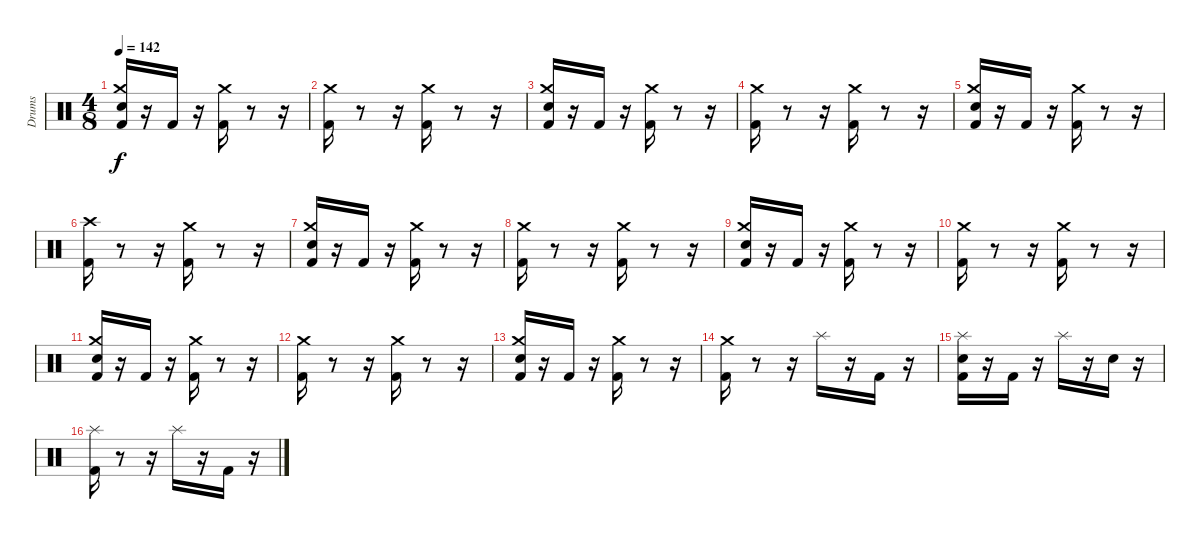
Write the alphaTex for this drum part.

\track ("Drums" "Drums") {instrument percussion}
\staff {score}
\articulation defaults
\ts (4 8)
\tempo 142
\clef neutral
\ks c
("Electric Snare (hit)" "Crash medium (hit)" "Kick (hit) 2").16{dy f} r.16 "Kick (hit) 2".16 r.16 ("Kick (hit) 2" "Crash medium (hit)").16 r.8 r.16 |
("Kick (hit) 2" "Crash medium (hit)").16 r.8 r.16 ("Kick (hit) 2" "Crash medium (hit)").16 r.8 r.16 |
("Electric Snare (hit)" "Crash medium (hit)" "Kick (hit) 2").16 r.16 "Kick (hit) 2".16 r.16 ("Kick (hit) 2" "Crash medium (hit)").16 r.8 r.16 |
("Kick (hit) 2" "Crash medium (hit)").16 r.8 r.16 ("Kick (hit) 2" "Crash medium (hit)").16 r.8 r.16 |
("Electric Snare (hit)" "Crash medium (hit)" "Kick (hit) 2").16 r.16 "Kick (hit) 2".16 r.16 ("Kick (hit) 2" "Crash medium (hit)").16 r.8 r.16 |
("Kick (hit) 2" "Crash high (hit)").16 r.8 r.16 ("Kick (hit) 2" "Crash medium (hit)").16 r.8 r.16 |
("Electric Snare (hit)" "Crash medium (hit)" "Kick (hit) 2").16 r.16 "Kick (hit) 2".16 r.16 ("Kick (hit) 2" "Crash medium (hit)").16 r.8 r.16 |
("Kick (hit) 2" "Crash medium (hit)").16 r.8 r.16 ("Kick (hit) 2" "Crash medium (hit)").16 r.8 r.16 |
("Electric Snare (hit)" "Crash medium (hit)" "Kick (hit) 2").16 r.16 "Kick (hit) 2".16 r.16 ("Kick (hit) 2" "Crash medium (hit)").16 r.8 r.16 |
("Kick (hit) 2" "Crash medium (hit)").16 r.8 r.16 ("Kick (hit) 2" "Crash medium (hit)").16 r.8 r.16 |
("Electric Snare (hit)" "Crash medium (hit)" "Kick (hit) 2").16 r.16 "Kick (hit) 2".16 r.16 ("Kick (hit) 2" "Crash medium (hit)").16 r.8 r.16 |
("Kick (hit) 2" "Crash medium (hit)").16 r.8 r.16 ("Kick (hit) 2" "Crash medium (hit)").16 r.8 r.16 |
("Electric Snare (hit)" "Crash medium (hit)" "Kick (hit) 2").16 r.16 "Kick (hit) 2".16 r.16 ("Kick (hit) 2" "Crash medium (hit)").16 r.8 r.16 |
("Kick (hit) 2" "Crash medium (hit)").16 r.8 r.16 "Splash (hit)".16 r.16 "Kick (hit) 2".16 r.16 |
("Electric Snare (hit)" "Kick (hit) 2" "Splash (hit)").16 r.16 "Kick (hit) 2".16 r.16 "Splash (hit)".16 r.16 "Electric Snare (hit)".16 r.16 |
("Kick (hit) 2" "Splash (hit)").16 r.8 r.16 "Splash (hit)".16 r.16 "Kick (hit) 2".16 r.16
